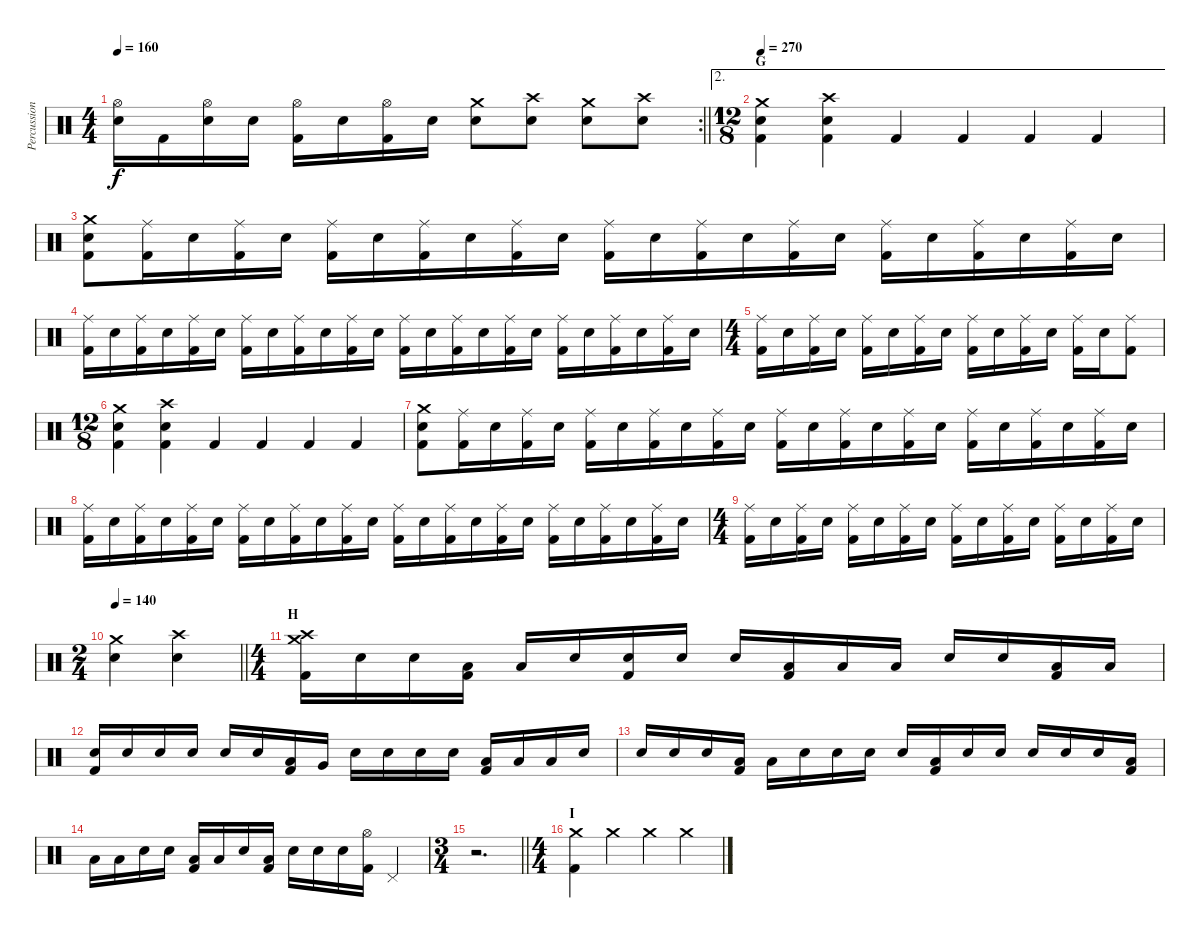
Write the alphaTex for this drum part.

\track ("Percussion" "Percussion") {instrument percussion}
\staff {score}
\articulation defaults
\rc 2
\ts (4 4)
\tempo 160
\clef neutral
\barLineRight lightlight
\ks c
("Hi-Hat (open)" "Electric Snare (hit)").16{dy f} "Kick (hit) 2".16 ("Hi-Hat (open)" "Electric Snare (hit)").16 "Electric Snare (hit)".16 ("Hi-Hat (open)" "Kick (hit) 2").16 "Electric Snare (hit)".16 ("Hi-Hat (open)" "Kick (hit) 2").16 "Electric Snare (hit)".16 ("Crash medium (hit)" "Electric Snare (hit)").8 ("Crash high (hit)" "Electric Snare (hit)").8 ("Crash medium (hit)" "Electric Snare (hit)").8 ("Crash high (hit)" "Electric Snare (hit)").8 |
\ae 2
\ts (12 8)
\section ("" "G")
\tempo 270
("Crash medium (hit)" "Electric Snare (hit)" "Kick (hit) 2").4 ("Crash high (hit)" "Electric Snare (hit)" "Kick (hit) 2").4 "Kick (hit) 2".4 "Kick (hit) 2".4 "Kick (hit) 2".4 "Kick (hit) 2".4 |
("Crash medium (hit)" "Electric Snare (hit)" "Kick (hit) 2").8 ("Ride (middle)" "Kick (hit) 2").16 "Electric Snare (hit)".16 ("Ride (middle)" "Kick (hit) 2").16 "Electric Snare (hit)".16 ("Ride (middle)" "Kick (hit) 2").16 "Electric Snare (hit)".16 ("Ride (middle)" "Kick (hit) 2").16 "Electric Snare (hit)".16 ("Ride (middle)" "Kick (hit) 2").16 "Electric Snare (hit)".16 ("Ride (middle)" "Kick (hit) 2").16 "Electric Snare (hit)".16 ("Ride (middle)" "Kick (hit) 2").16 "Electric Snare (hit)".16 ("Ride (middle)" "Kick (hit) 2").16 "Electric Snare (hit)".16 ("Ride (middle)" "Kick (hit) 2").16 "Electric Snare (hit)".16 ("Ride (middle)" "Kick (hit) 2").16 "Electric Snare (hit)".16 ("Ride (middle)" "Kick (hit) 2").16 "Electric Snare (hit)".16 |
("Ride (middle)" "Kick (hit) 2").16 "Electric Snare (hit)".16 ("Ride (middle)" "Kick (hit) 2").16 "Electric Snare (hit)".16 ("Ride (middle)" "Kick (hit) 2").16 "Electric Snare (hit)".16 ("Ride (middle)" "Kick (hit) 2").16 "Electric Snare (hit)".16 ("Ride (middle)" "Kick (hit) 2").16 "Electric Snare (hit)".16 ("Ride (middle)" "Kick (hit) 2").16 "Electric Snare (hit)".16 ("Ride (middle)" "Kick (hit) 2").16 "Electric Snare (hit)".16 ("Ride (middle)" "Kick (hit) 2").16 "Electric Snare (hit)".16 ("Ride (middle)" "Kick (hit) 2").16 "Electric Snare (hit)".16 ("Ride (middle)" "Kick (hit) 2").16 "Electric Snare (hit)".16 ("Ride (middle)" "Kick (hit) 2").16 "Electric Snare (hit)".16 ("Ride (middle)" "Kick (hit) 2").16 "Electric Snare (hit)".16 |
\ts (4 4)
("Ride (middle)" "Kick (hit) 2").16 "Electric Snare (hit)".16 ("Ride (middle)" "Kick (hit) 2").16 "Electric Snare (hit)".16 ("Ride (middle)" "Kick (hit) 2").16 "Electric Snare (hit)".16 ("Ride (middle)" "Kick (hit) 2").16 "Electric Snare (hit)".16 ("Ride (middle)" "Kick (hit) 2").16 "Electric Snare (hit)".16 ("Ride (middle)" "Kick (hit) 2").16 "Electric Snare (hit)".16 ("Ride (middle)" "Kick (hit) 2").16 "Electric Snare (hit)".16 ("Ride (middle)" "Kick (hit) 2").8 |
\ts (12 8)
("Crash medium (hit)" "Electric Snare (hit)" "Kick (hit) 2").4 ("Crash high (hit)" "Electric Snare (hit)" "Kick (hit) 2").4 "Kick (hit) 2".4 "Kick (hit) 2".4 "Kick (hit) 2".4 "Kick (hit) 2".4 |
("Crash medium (hit)" "Electric Snare (hit)" "Kick (hit) 2").8 ("Ride (middle)" "Kick (hit) 2").16 "Electric Snare (hit)".16 ("Ride (middle)" "Kick (hit) 2").16 "Electric Snare (hit)".16 ("Ride (middle)" "Kick (hit) 2").16 "Electric Snare (hit)".16 ("Ride (middle)" "Kick (hit) 2").16 "Electric Snare (hit)".16 ("Ride (middle)" "Kick (hit) 2").16 "Electric Snare (hit)".16 ("Ride (middle)" "Kick (hit) 2").16 "Electric Snare (hit)".16 ("Ride (middle)" "Kick (hit) 2").16 "Electric Snare (hit)".16 ("Ride (middle)" "Kick (hit) 2").16 "Electric Snare (hit)".16 ("Ride (middle)" "Kick (hit) 2").16 "Electric Snare (hit)".16 ("Ride (middle)" "Kick (hit) 2").16 "Electric Snare (hit)".16 ("Ride (middle)" "Kick (hit) 2").16 "Electric Snare (hit)".16 |
("Ride (middle)" "Kick (hit) 2").16 "Electric Snare (hit)".16 ("Ride (middle)" "Kick (hit) 2").16 "Electric Snare (hit)".16 ("Ride (middle)" "Kick (hit) 2").16 "Electric Snare (hit)".16 ("Ride (middle)" "Kick (hit) 2").16 "Electric Snare (hit)".16 ("Ride (middle)" "Kick (hit) 2").16 "Electric Snare (hit)".16 ("Ride (middle)" "Kick (hit) 2").16 "Electric Snare (hit)".16 ("Ride (middle)" "Kick (hit) 2").16 "Electric Snare (hit)".16 ("Ride (middle)" "Kick (hit) 2").16 "Electric Snare (hit)".16 ("Ride (middle)" "Kick (hit) 2").16 "Electric Snare (hit)".16 ("Ride (middle)" "Kick (hit) 2").16 "Electric Snare (hit)".16 ("Ride (middle)" "Kick (hit) 2").16 "Electric Snare (hit)".16 ("Ride (middle)" "Kick (hit) 2").16 "Electric Snare (hit)".16 |
\ts (4 4)
("Ride (middle)" "Kick (hit) 2").16 "Electric Snare (hit)".16 ("Ride (middle)" "Kick (hit) 2").16 "Electric Snare (hit)".16 ("Ride (middle)" "Kick (hit) 2").16 "Electric Snare (hit)".16 ("Ride (middle)" "Kick (hit) 2").16 "Electric Snare (hit)".16 ("Ride (middle)" "Kick (hit) 2").16 "Electric Snare (hit)".16 ("Ride (middle)" "Kick (hit) 2").16 "Electric Snare (hit)".16 ("Ride (middle)" "Kick (hit) 2").16 "Electric Snare (hit)".16 ("Ride (middle)" "Kick (hit) 2").16 "Electric Snare (hit)".16 |
\ts (2 4)
\tempo 140
\barLineRight lightlight
("Crash medium (hit)" "Electric Snare (hit)").4 ("Crash high (hit)" "Electric Snare (hit)").4 |
\ts (4 4)
\section ("" "H")
("Crash medium (hit)" "Crash high (hit)" "Kick (hit) 2").16 "Electric Snare (hit)".16 "Electric Snare (hit)".16 ("Low Tom (hit)" "Kick (hit) 2").16 "Low Tom (hit)".16 "Electric Snare (hit)".16 ("Electric Snare (hit)" "Kick (hit) 2").16 "Electric Snare (hit)".16 "Electric Snare (hit)".16 ("Low Tom (hit)" "Kick (hit) 2").16 "Low Tom (hit)".16 "Low Tom (hit)".16 "Electric Snare (hit)".16 "Electric Snare (hit)".16 ("Low Tom (hit)" "Kick (hit) 2").16 "Low Tom (hit)".16 |
("Electric Snare (hit)" "Kick (hit) 2").16 "Electric Snare (hit)".16 "Electric Snare (hit)".16 "Electric Snare (hit)".16 "Electric Snare (hit)".16 "Electric Snare (hit)".16 ("Low Tom (hit)" "Kick (hit) 2").16 "Very Low Tom (hit)".16 "Electric Snare (hit)".16 "Electric Snare (hit)".16 "Electric Snare (hit)".16 "Electric Snare (hit)".16 ("Low Tom (hit)" "Kick (hit) 2").16 "Low Tom (hit)".16 "Low Tom (hit)".16 "Electric Snare (hit)".16 |
"Electric Snare (hit)".16 "Electric Snare (hit)".16 "Electric Snare (hit)".16 ("Low Tom (hit)" "Kick (hit) 2").16 "Low Tom (hit)".16 "Electric Snare (hit)".16 "Electric Snare (hit)".16 "Electric Snare (hit)".16 "Electric Snare (hit)".16 ("Low Tom (hit)" "Kick (hit) 2").16 "Electric Snare (hit)".16 "Electric Snare (hit)".16 "Electric Snare (hit)".16 "Electric Snare (hit)".16 "Electric Snare (hit)".16 ("Low Tom (hit)" "Kick (hit) 2").16 |
"Low Tom (hit)".16 "Low Tom (hit)".16 "Electric Snare (hit)".16 "Electric Snare (hit)".16 ("Low Tom (hit)" "Kick (hit) 2").16 "Low Tom (hit)".16 "Electric Snare (hit)".16 ("Low Tom (hit)" "Kick (hit) 2").16 "Electric Snare (hit)".16 "Electric Snare (hit)".16 "Electric Snare (hit)".16 ("Hi-Hat (open)" "Kick (hit) 2").16 "Pedal Hi-Hat (hit)".4 |
\ts (3 4)
\barLineRight lightlight
r.2{d} |
\ts (4 4)
\section ("" "I")
("Crash medium (hit)" "Kick (hit) 2").4 "Crash medium (hit)".4 "Crash medium (hit)".4 "Crash medium (hit)".4
